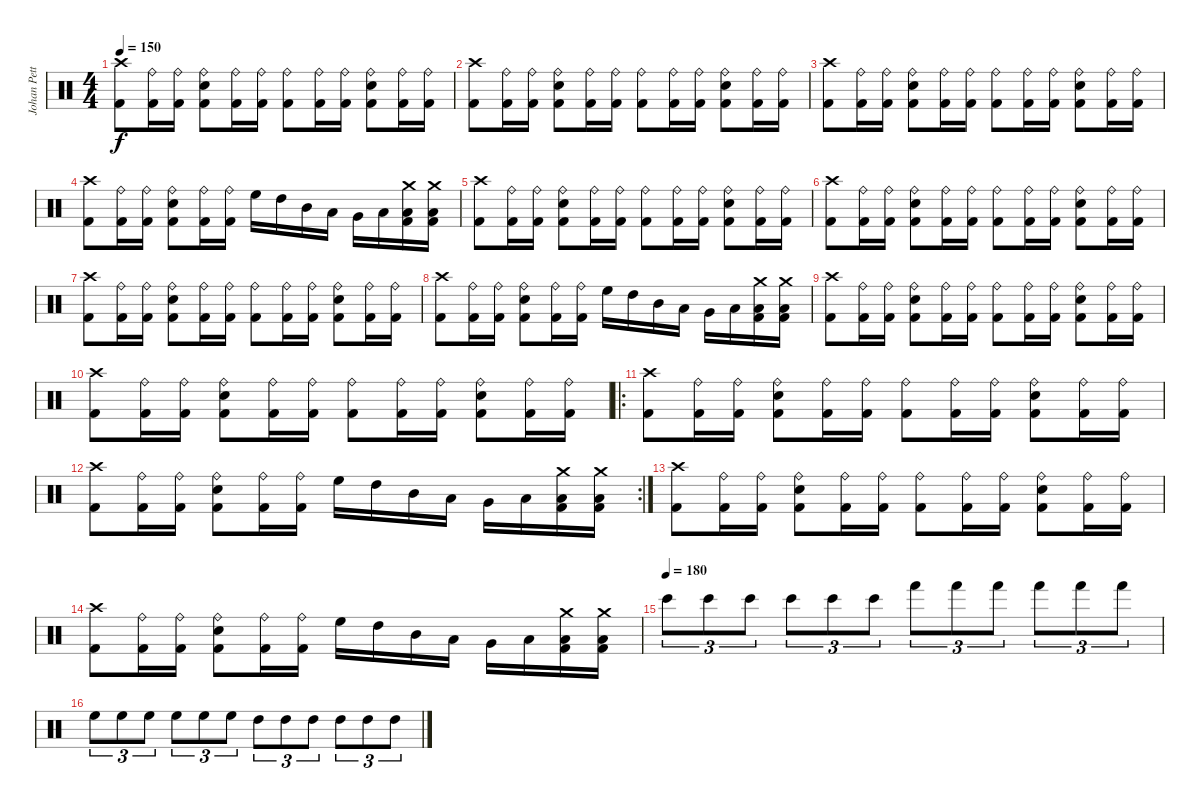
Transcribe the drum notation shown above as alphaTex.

\track ("Johan Petterson" "Johan Pett") {instrument percussion}
\staff {score}
\articulation defaults
\ts (4 4)
\tempo 150
\clef neutral
\ks c
("Crash high (hit)" "Kick (hit) 2").8{dy f} ("Ride (bell)" "Kick (hit) 2").16 ("Ride (bell)" "Kick (hit) 2").16 ("Ride (bell)" "Snare (hit) 2" "Kick (hit) 2").8 ("Ride (bell)" "Kick (hit) 2").16 ("Ride (bell)" "Kick (hit) 2").16 ("Ride (bell)" "Kick (hit) 2").8 ("Ride (bell)" "Kick (hit) 2").16 ("Ride (bell)" "Kick (hit) 2").16 ("Ride (bell)" "Snare (hit) 2" "Kick (hit) 2").8 ("Ride (bell)" "Kick (hit) 2").16 ("Ride (bell)" "Kick (hit) 2").16 |
("Crash high (hit)" "Kick (hit) 2").8 ("Ride (bell)" "Kick (hit) 2").16 ("Ride (bell)" "Kick (hit) 2").16 ("Ride (bell)" "Snare (hit) 2" "Kick (hit) 2").8 ("Ride (bell)" "Kick (hit) 2").16 ("Ride (bell)" "Kick (hit) 2").16 ("Ride (bell)" "Kick (hit) 2").8 ("Ride (bell)" "Kick (hit) 2").16 ("Ride (bell)" "Kick (hit) 2").16 ("Ride (bell)" "Snare (hit) 2" "Kick (hit) 2").8 ("Ride (bell)" "Kick (hit) 2").16 ("Ride (bell)" "Kick (hit) 2").16 |
("Crash high (hit)" "Kick (hit) 2").8 ("Ride (bell)" "Kick (hit) 2").16 ("Ride (bell)" "Kick (hit) 2").16 ("Ride (bell)" "Snare (hit) 2" "Kick (hit) 2").8 ("Ride (bell)" "Kick (hit) 2").16 ("Ride (bell)" "Kick (hit) 2").16 ("Ride (bell)" "Kick (hit) 2").8 ("Ride (bell)" "Kick (hit) 2").16 ("Ride (bell)" "Kick (hit) 2").16 ("Ride (bell)" "Snare (hit) 2" "Kick (hit) 2").8 ("Ride (bell)" "Kick (hit) 2").16 ("Ride (bell)" "Kick (hit) 2").16 |
("Crash high (hit)" "Kick (hit) 2").8 ("Ride (bell)" "Kick (hit) 2").16 ("Ride (bell)" "Kick (hit) 2").16 ("Ride (bell)" "Snare (hit) 2" "Kick (hit) 2").8 ("Ride (bell)" "Kick (hit) 2").16 ("Ride (bell)" "Kick (hit) 2").16 "High Floor Tom (hit)".16 "High Tom (hit)".16 "Mid Tom (hit)".16 "Low Tom (hit)".16 "Very Low Tom (hit)".16 "Low Floor Tom (hit)".16 ("Crash medium (hit)" "Low Floor Tom (hit)" "Kick (hit) 2").16 ("Crash medium (hit)" "Low Floor Tom (hit)" "Kick (hit) 2").16 |
("Crash high (hit)" "Kick (hit) 2").8 ("Ride (bell)" "Kick (hit) 2").16 ("Ride (bell)" "Kick (hit) 2").16 ("Ride (bell)" "Snare (hit) 2" "Kick (hit) 2").8 ("Ride (bell)" "Kick (hit) 2").16 ("Ride (bell)" "Kick (hit) 2").16 ("Ride (bell)" "Kick (hit) 2").8 ("Ride (bell)" "Kick (hit) 2").16 ("Ride (bell)" "Kick (hit) 2").16 ("Ride (bell)" "Snare (hit) 2" "Kick (hit) 2").8 ("Ride (bell)" "Kick (hit) 2").16 ("Ride (bell)" "Kick (hit) 2").16 |
("Crash high (hit)" "Kick (hit) 2").8 ("Ride (bell)" "Kick (hit) 2").16 ("Ride (bell)" "Kick (hit) 2").16 ("Ride (bell)" "Snare (hit) 2" "Kick (hit) 2").8 ("Ride (bell)" "Kick (hit) 2").16 ("Ride (bell)" "Kick (hit) 2").16 ("Ride (bell)" "Kick (hit) 2").8 ("Ride (bell)" "Kick (hit) 2").16 ("Ride (bell)" "Kick (hit) 2").16 ("Ride (bell)" "Snare (hit) 2" "Kick (hit) 2").8 ("Ride (bell)" "Kick (hit) 2").16 ("Ride (bell)" "Kick (hit) 2").16 |
("Crash high (hit)" "Kick (hit) 2").8 ("Ride (bell)" "Kick (hit) 2").16 ("Ride (bell)" "Kick (hit) 2").16 ("Ride (bell)" "Snare (hit) 2" "Kick (hit) 2").8 ("Ride (bell)" "Kick (hit) 2").16 ("Ride (bell)" "Kick (hit) 2").16 ("Ride (bell)" "Kick (hit) 2").8 ("Ride (bell)" "Kick (hit) 2").16 ("Ride (bell)" "Kick (hit) 2").16 ("Ride (bell)" "Snare (hit) 2" "Kick (hit) 2").8 ("Ride (bell)" "Kick (hit) 2").16 ("Ride (bell)" "Kick (hit) 2").16 |
("Crash high (hit)" "Kick (hit) 2").8 ("Ride (bell)" "Kick (hit) 2").16 ("Ride (bell)" "Kick (hit) 2").16 ("Ride (bell)" "Snare (hit) 2" "Kick (hit) 2").8 ("Ride (bell)" "Kick (hit) 2").16 ("Ride (bell)" "Kick (hit) 2").16 "High Floor Tom (hit)".16 "High Tom (hit)".16 "Mid Tom (hit)".16 "Low Tom (hit)".16 "Very Low Tom (hit)".16 "Low Floor Tom (hit)".16 ("Crash medium (hit)" "Low Floor Tom (hit)" "Kick (hit) 2").16 ("Crash medium (hit)" "Low Floor Tom (hit)" "Kick (hit) 2").16 |
("Crash high (hit)" "Kick (hit) 2").8 ("Ride (bell)" "Kick (hit) 2").16 ("Ride (bell)" "Kick (hit) 2").16 ("Ride (bell)" "Snare (hit) 2" "Kick (hit) 2").8 ("Ride (bell)" "Kick (hit) 2").16 ("Ride (bell)" "Kick (hit) 2").16 ("Ride (bell)" "Kick (hit) 2").8 ("Ride (bell)" "Kick (hit) 2").16 ("Ride (bell)" "Kick (hit) 2").16 ("Ride (bell)" "Snare (hit) 2" "Kick (hit) 2").8 ("Ride (bell)" "Kick (hit) 2").16 ("Ride (bell)" "Kick (hit) 2").16 |
("Crash high (hit)" "Kick (hit) 2").8 ("Ride (bell)" "Kick (hit) 2").16 ("Ride (bell)" "Kick (hit) 2").16 ("Ride (bell)" "Snare (hit) 2" "Kick (hit) 2").8 ("Ride (bell)" "Kick (hit) 2").16 ("Ride (bell)" "Kick (hit) 2").16 ("Ride (bell)" "Kick (hit) 2").8 ("Ride (bell)" "Kick (hit) 2").16 ("Ride (bell)" "Kick (hit) 2").16 ("Ride (bell)" "Snare (hit) 2" "Kick (hit) 2").8 ("Ride (bell)" "Kick (hit) 2").16 ("Ride (bell)" "Kick (hit) 2").16 |
\ro
("Crash high (hit)" "Kick (hit) 2").8 ("Ride (bell)" "Kick (hit) 2").16 ("Ride (bell)" "Kick (hit) 2").16 ("Ride (bell)" "Snare (hit) 2" "Kick (hit) 2").8 ("Ride (bell)" "Kick (hit) 2").16 ("Ride (bell)" "Kick (hit) 2").16 ("Ride (bell)" "Kick (hit) 2").8 ("Ride (bell)" "Kick (hit) 2").16 ("Ride (bell)" "Kick (hit) 2").16 ("Ride (bell)" "Snare (hit) 2" "Kick (hit) 2").8 ("Ride (bell)" "Kick (hit) 2").16 ("Ride (bell)" "Kick (hit) 2").16 |
\rc 2
("Crash high (hit)" "Kick (hit) 2").8 ("Ride (bell)" "Kick (hit) 2").16 ("Ride (bell)" "Kick (hit) 2").16 ("Ride (bell)" "Snare (hit) 2" "Kick (hit) 2").8 ("Ride (bell)" "Kick (hit) 2").16 ("Ride (bell)" "Kick (hit) 2").16 "High Floor Tom (hit)".16 "High Tom (hit)".16 "Mid Tom (hit)".16 "Low Tom (hit)".16 "Very Low Tom (hit)".16 "Low Floor Tom (hit)".16 ("Crash medium (hit)" "Low Floor Tom (hit)" "Kick (hit) 2").16 ("Crash medium (hit)" "Low Floor Tom (hit)" "Kick (hit) 2").16 |
("Crash high (hit)" "Kick (hit) 2").8 ("Ride (bell)" "Kick (hit) 2").16 ("Ride (bell)" "Kick (hit) 2").16 ("Ride (bell)" "Snare (hit) 2" "Kick (hit) 2").8 ("Ride (bell)" "Kick (hit) 2").16 ("Ride (bell)" "Kick (hit) 2").16 ("Ride (bell)" "Kick (hit) 2").8 ("Ride (bell)" "Kick (hit) 2").16 ("Ride (bell)" "Kick (hit) 2").16 ("Ride (bell)" "Snare (hit) 2" "Kick (hit) 2").8 ("Ride (bell)" "Kick (hit) 2").16 ("Ride (bell)" "Kick (hit) 2").16 |
("Crash high (hit)" "Kick (hit) 2").8 ("Ride (bell)" "Kick (hit) 2").16 ("Ride (bell)" "Kick (hit) 2").16 ("Ride (bell)" "Snare (hit) 2" "Kick (hit) 2").8 ("Ride (bell)" "Kick (hit) 2").16 ("Ride (bell)" "Kick (hit) 2").16 "High Floor Tom (hit)".16 "High Tom (hit)".16 "Mid Tom (hit)".16 "Low Tom (hit)".16 "Very Low Tom (hit)".16 "Low Floor Tom (hit)".16 ("Crash medium (hit)" "Low Floor Tom (hit)" "Kick (hit) 2").16 ("Crash medium (hit)" "Low Floor Tom (hit)" "Kick (hit) 2").16 |
\tempo (180)
"Bongo High (hit)".8{tu (3 2)} "Bongo High (hit)".8{tu (3 2)} "Bongo High (hit)".8{tu (3 2)} "Bongo High (hit)".8{tu (3 2)} "Bongo High (hit)".8{tu (3 2)} "Bongo High (hit)".8{tu (3 2)} "Hand (hit)".8{tu (3 2)} "Hand (hit)".8{tu (3 2)} "Hand (hit)".8{tu (3 2)} "Hand (hit)".8{tu (3 2)} "Hand (hit)".8{tu (3 2)} "Hand (hit)".8{tu (3 2)} |
"High Floor Tom (hit)".8{tu (3 2)} "High Floor Tom (hit)".8{tu (3 2)} "High Floor Tom (hit)".8{tu (3 2)} "High Floor Tom (hit)".8{tu (3 2)} "High Floor Tom (hit)".8{tu (3 2)} "High Floor Tom (hit)".8{tu (3 2)} "High Tom (hit)".8{tu (3 2)} "High Tom (hit)".8{tu (3 2)} "High Tom (hit)".8{tu (3 2)} "High Tom (hit)".8{tu (3 2)} "High Tom (hit)".8{tu (3 2)} "High Tom (hit)".8{tu (3 2)}
